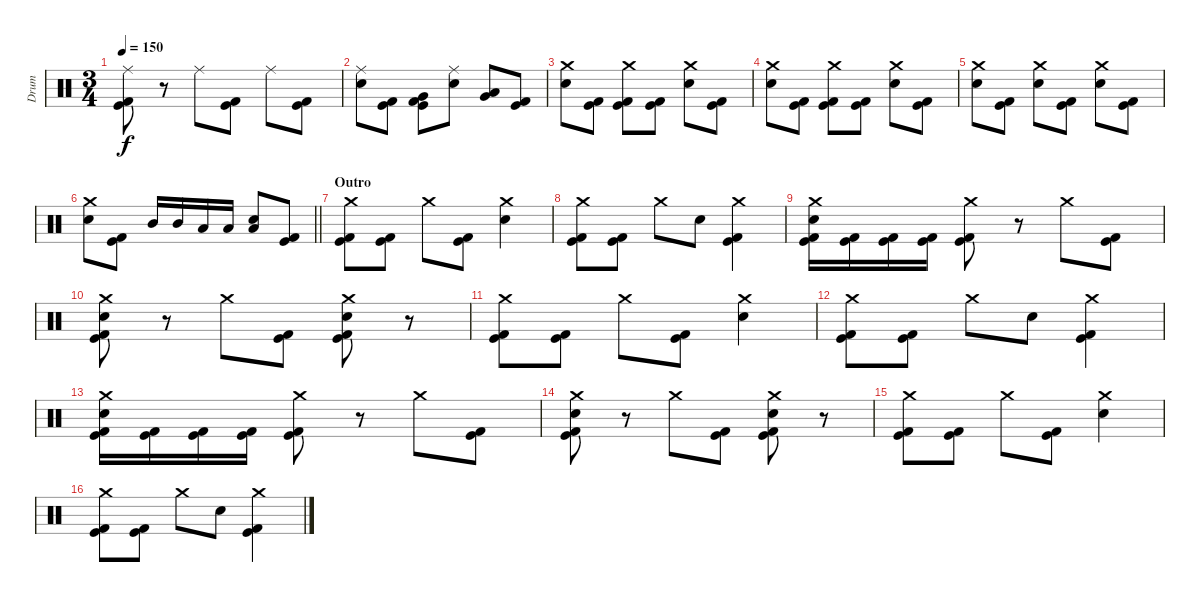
\track ("Drum" "Drum") {instrument percussion}
\staff {score}
\articulation defaults
\ts (3 4)
\tempo 150
\clef neutral
\ks c
("Ride (middle)" "Kick (hit)" "Kick (hit) 2").8{dy f} r.8 "Ride (middle)".8 ("Kick (hit)" "Kick (hit) 2").8 "Ride (middle)".8 ("Kick (hit)" "Kick (hit) 2").8 |
("Ride (middle)" "Electric Snare (hit)").8 ("Kick (hit)" "Kick (hit) 2").8 ("Very Low Tom (hit)" "Kick (hit)" "Kick (hit) 2").8 ("Ride (middle)" "Electric Snare (hit)").8 ("Very Low Tom (hit)" "Low Tom (hit)").8 ("Kick (hit)" "Kick (hit) 2").8 |
("Crash medium (hit)" "Electric Snare (hit)").8 ("Kick (hit)" "Kick (hit) 2").8 ("Crash medium (hit)" "Kick (hit)" "Kick (hit) 2").8 ("Kick (hit)" "Kick (hit) 2").8 ("Crash medium (hit)" "Electric Snare (hit)").8 ("Kick (hit)" "Kick (hit) 2").8 |
("Crash medium (hit)" "Electric Snare (hit)").8 ("Kick (hit)" "Kick (hit) 2").8 ("Crash medium (hit)" "Kick (hit)" "Kick (hit) 2").8 ("Kick (hit)" "Kick (hit) 2").8 ("Crash medium (hit)" "Electric Snare (hit)").8 ("Kick (hit)" "Kick (hit) 2").8 |
("Crash medium (hit)" "Electric Snare (hit)").8 ("Kick (hit)" "Kick (hit) 2").8 ("Crash medium (hit)" "Electric Snare (hit)").8 ("Kick (hit)" "Kick (hit) 2").8 ("Crash medium (hit)" "Electric Snare (hit)").8 ("Kick (hit)" "Kick (hit) 2").8 |
\barLineRight lightlight
("Crash medium (hit)" "Electric Snare (hit)").8 ("Kick (hit)" "Kick (hit) 2").8 "Mid Tom (hit)".16 "Mid Tom (hit)".16 "Low Tom (hit)".16 "Low Tom (hit)".16 ("Low Floor Tom (hit)" "Electric Snare (hit)").8 ("Kick (hit)" "Kick (hit) 2").8 |
\section ("" "Outro")
("Crash medium (hit)" "Kick (hit)" "Kick (hit) 2").8 ("Kick (hit)" "Kick (hit) 2").8 "Crash medium (hit)".8 ("Kick (hit)" "Kick (hit) 2").8 ("Crash medium (hit)" "Electric Snare (hit)").4 |
("Crash medium (hit)" "Kick (hit)" "Kick (hit) 2").8 ("Kick (hit)" "Kick (hit) 2").8 "Crash medium (hit)".8 "Electric Snare (hit)".8 ("Crash medium (hit)" "Kick (hit)" "Kick (hit) 2").4 |
("Crash medium (hit)" "Electric Snare (hit)" "Kick (hit)" "Kick (hit) 2").16 ("Kick (hit)" "Kick (hit) 2").16 ("Kick (hit)" "Kick (hit) 2").16 ("Kick (hit)" "Kick (hit) 2").16 ("Crash medium (hit)" "Kick (hit)" "Kick (hit) 2").8 r.8 "Crash medium (hit)".8 ("Kick (hit)" "Kick (hit) 2").8 |
("Crash medium (hit)" "Electric Snare (hit)" "Kick (hit)" "Kick (hit) 2").8 r.8 "Crash medium (hit)".8 ("Kick (hit)" "Kick (hit) 2").8 ("Crash medium (hit)" "Electric Snare (hit)" "Kick (hit)" "Kick (hit) 2").8 r.8 |
("Crash medium (hit)" "Kick (hit)" "Kick (hit) 2").8 ("Kick (hit)" "Kick (hit) 2").8 "Crash medium (hit)".8 ("Kick (hit)" "Kick (hit) 2").8 ("Crash medium (hit)" "Electric Snare (hit)").4 |
("Crash medium (hit)" "Kick (hit)" "Kick (hit) 2").8 ("Kick (hit)" "Kick (hit) 2").8 "Crash medium (hit)".8 "Electric Snare (hit)".8 ("Crash medium (hit)" "Kick (hit)" "Kick (hit) 2").4 |
("Crash medium (hit)" "Electric Snare (hit)" "Kick (hit)" "Kick (hit) 2").16 ("Kick (hit)" "Kick (hit) 2").16 ("Kick (hit)" "Kick (hit) 2").16 ("Kick (hit)" "Kick (hit) 2").16 ("Crash medium (hit)" "Kick (hit)" "Kick (hit) 2").8 r.8 "Crash medium (hit)".8 ("Kick (hit)" "Kick (hit) 2").8 |
("Crash medium (hit)" "Electric Snare (hit)" "Kick (hit)" "Kick (hit) 2").8 r.8 "Crash medium (hit)".8 ("Kick (hit)" "Kick (hit) 2").8 ("Crash medium (hit)" "Electric Snare (hit)" "Kick (hit)" "Kick (hit) 2").8 r.8 |
("Crash medium (hit)" "Kick (hit)" "Kick (hit) 2").8 ("Kick (hit)" "Kick (hit) 2").8 "Crash medium (hit)".8 ("Kick (hit)" "Kick (hit) 2").8 ("Crash medium (hit)" "Electric Snare (hit)").4 |
("Crash medium (hit)" "Kick (hit)" "Kick (hit) 2").8 ("Kick (hit)" "Kick (hit) 2").8 "Crash medium (hit)".8 "Electric Snare (hit)".8 ("Crash medium (hit)" "Kick (hit)" "Kick (hit) 2").4
